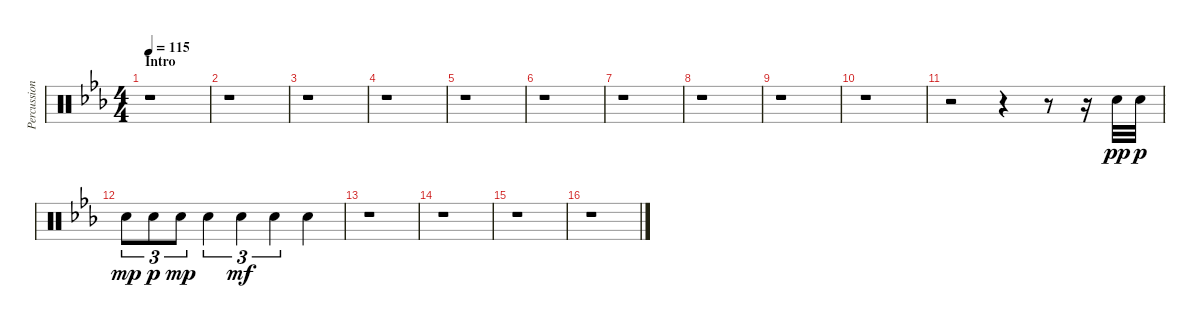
\track ("Percussion" "Percussion") {instrument percussion}
\staff {score}
\articulation defaults
\ts (4 4)
\section ("" "Intro")
\tempo 115
\clef neutral
\ks cminor
r.1{dy pp} |
r.1 |
r.1 |
r.1 |
r.1 |
r.1 |
r.1 |
r.1 |
r.1 |
r.1 |
r.2{volume 8 balance 14} r.4 r.8 r.16 "Snare (hit) 2".32 "Snare (hit) 2".32{dy p} |
"Snare (hit) 2".8{tu (3 2) dy mp} "Snare (hit) 2".8{tu (3 2) dy p} "Snare (hit) 2".8{tu (3 2) dy mp} "Snare (hit) 2".4{tu (3 2)} "Snare (hit) 2".4{tu (3 2) dy mf} "Snare (hit) 2".4{tu (3 2)} "Snare (hit) 2".4 |
r.1 |
r.1 |
r.1 |
r.1
